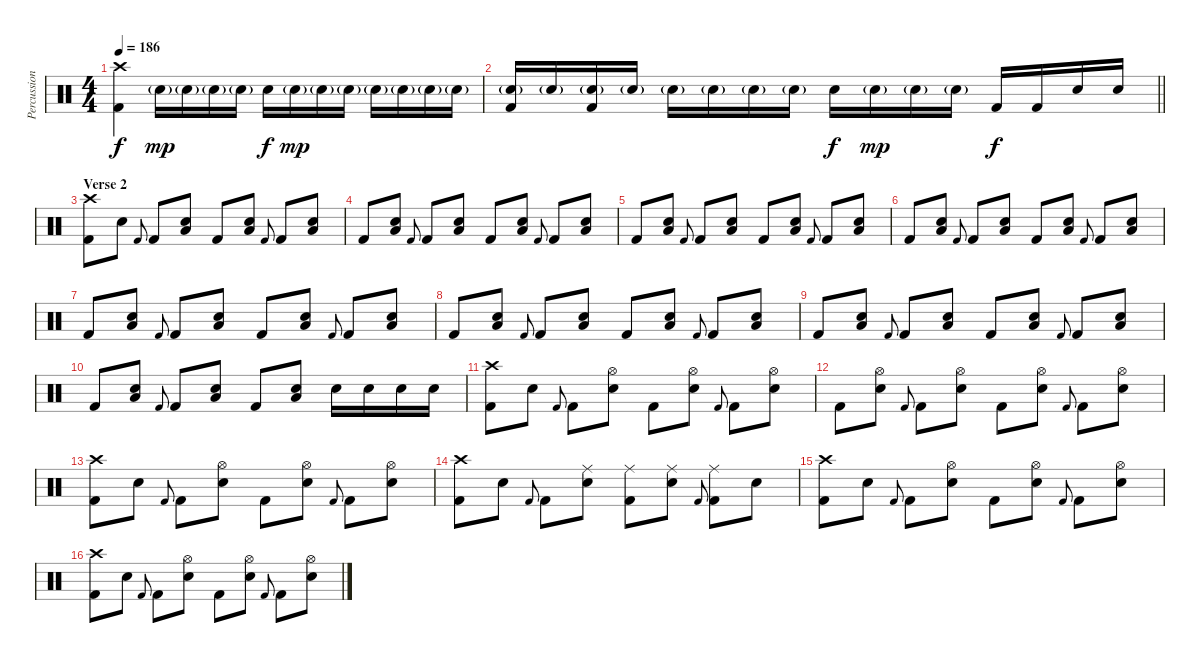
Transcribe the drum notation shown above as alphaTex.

\track ("Percussion" "Percussion") {instrument percussion}
\staff {score}
\articulation defaults
\ts (4 4)
\tempo 186
\clef neutral
\ks c
("Crash high (hit)" "Kick (hit) 2").4{dy f} "Electric Snare (hit)"{g}.16{dy mp} "Electric Snare (hit)"{g}.16 "Electric Snare (hit)"{g}.16 "Electric Snare (hit)"{g}.16 "Electric Snare (hit)".16{dy f} "Electric Snare (hit)"{g}.16{dy mp} "Electric Snare (hit)"{g}.16 "Electric Snare (hit)"{g}.16 "Electric Snare (hit)"{g}.16 "Electric Snare (hit)"{g}.16 "Electric Snare (hit)"{g}.16 "Electric Snare (hit)"{g}.16 |
\barLineRight lightlight
("Electric Snare (hit)"{g} "Kick (hit) 2").16 "Electric Snare (hit)"{g}.16 ("Electric Snare (hit)"{g} "Kick (hit) 2").16 "Electric Snare (hit)"{g}.16 "Electric Snare (hit)"{g}.16 "Electric Snare (hit)"{g}.16 "Electric Snare (hit)"{g}.16 "Electric Snare (hit)"{g}.16 "Electric Snare (hit)".16{dy f} "Electric Snare (hit)"{g}.16{dy mp} "Electric Snare (hit)"{g}.16 "Electric Snare (hit)"{g}.16 "Kick (hit) 2".16{dy f} "Kick (hit) 2".16 "Electric Snare (hit)".16 "Electric Snare (hit)".16 |
\section ("" "Verse 2")
("Crash high (hit)" "Kick (hit) 2").8 "Electric Snare (hit)".8 "Kick (hit) 2".8{gr onbeat} "Kick (hit) 2".8 ("Low Floor Tom (hit)" "Electric Snare (hit)").8 "Kick (hit) 2".8 ("Low Floor Tom (hit)" "Electric Snare (hit)").8 "Kick (hit) 2".8{gr onbeat} "Kick (hit) 2".8 ("Low Floor Tom (hit)" "Electric Snare (hit)").8 |
"Kick (hit) 2".8 ("Low Floor Tom (hit)" "Electric Snare (hit)").8 "Kick (hit) 2".8{gr onbeat} "Kick (hit) 2".8 ("Low Floor Tom (hit)" "Electric Snare (hit)").8 "Kick (hit) 2".8 ("Low Floor Tom (hit)" "Electric Snare (hit)").8 "Kick (hit) 2".8{gr onbeat} "Kick (hit) 2".8 ("Low Floor Tom (hit)" "Electric Snare (hit)").8 |
"Kick (hit) 2".8 ("Low Floor Tom (hit)" "Electric Snare (hit)").8 "Kick (hit) 2".8{gr onbeat} "Kick (hit) 2".8 ("Low Floor Tom (hit)" "Electric Snare (hit)").8 "Kick (hit) 2".8 ("Low Floor Tom (hit)" "Electric Snare (hit)").8 "Kick (hit) 2".8{gr onbeat} "Kick (hit) 2".8 ("Low Floor Tom (hit)" "Electric Snare (hit)").8 |
"Kick (hit) 2".8 ("Low Floor Tom (hit)" "Electric Snare (hit)").8 "Kick (hit) 2".8{gr onbeat} "Kick (hit) 2".8 ("Low Floor Tom (hit)" "Electric Snare (hit)").8 "Kick (hit) 2".8 ("Low Floor Tom (hit)" "Electric Snare (hit)").8 "Kick (hit) 2".8{gr onbeat} "Kick (hit) 2".8 ("Low Floor Tom (hit)" "Electric Snare (hit)").8 |
"Kick (hit) 2".8 ("Low Floor Tom (hit)" "Electric Snare (hit)").8 "Kick (hit) 2".8{gr onbeat} "Kick (hit) 2".8 ("Low Floor Tom (hit)" "Electric Snare (hit)").8 "Kick (hit) 2".8 ("Low Floor Tom (hit)" "Electric Snare (hit)").8 "Kick (hit) 2".8{gr onbeat} "Kick (hit) 2".8 ("Low Floor Tom (hit)" "Electric Snare (hit)").8 |
"Kick (hit) 2".8 ("Low Floor Tom (hit)" "Electric Snare (hit)").8 "Kick (hit) 2".8{gr onbeat} "Kick (hit) 2".8 ("Low Floor Tom (hit)" "Electric Snare (hit)").8 "Kick (hit) 2".8 ("Low Floor Tom (hit)" "Electric Snare (hit)").8 "Kick (hit) 2".8{gr onbeat} "Kick (hit) 2".8 ("Low Floor Tom (hit)" "Electric Snare (hit)").8 |
"Kick (hit) 2".8 ("Low Floor Tom (hit)" "Electric Snare (hit)").8 "Kick (hit) 2".8{gr onbeat} "Kick (hit) 2".8 ("Low Floor Tom (hit)" "Electric Snare (hit)").8 "Kick (hit) 2".8 ("Low Floor Tom (hit)" "Electric Snare (hit)").8 "Kick (hit) 2".8{gr onbeat} "Kick (hit) 2".8 ("Low Floor Tom (hit)" "Electric Snare (hit)").8 |
"Kick (hit) 2".8 ("Low Floor Tom (hit)" "Electric Snare (hit)").8 "Kick (hit) 2".8{gr onbeat} "Kick (hit) 2".8 ("Low Floor Tom (hit)" "Electric Snare (hit)").8 "Kick (hit) 2".8 ("Low Floor Tom (hit)" "Electric Snare (hit)").8 "Electric Snare (hit)".16 "Electric Snare (hit)".16 "Electric Snare (hit)".16 "Electric Snare (hit)".16 |
("Crash high (hit)" "Kick (hit) 2").8 "Electric Snare (hit)".8 "Kick (hit) 2".8{gr onbeat} "Kick (hit) 2".8 ("Hi-Hat (open)" "Electric Snare (hit)").8 "Kick (hit) 2".8 ("Hi-Hat (open)" "Electric Snare (hit)").8 "Kick (hit) 2".8{gr onbeat} "Kick (hit) 2".8 ("Hi-Hat (open)" "Electric Snare (hit)").8 |
"Kick (hit) 2".8 ("Hi-Hat (open)" "Electric Snare (hit)").8 "Kick (hit) 2".8{gr onbeat} "Kick (hit) 2".8 ("Hi-Hat (open)" "Electric Snare (hit)").8 "Kick (hit) 2".8 ("Hi-Hat (open)" "Electric Snare (hit)").8 "Kick (hit) 2".8{gr onbeat} "Kick (hit) 2".8 ("Hi-Hat (open)" "Electric Snare (hit)").8 |
("Crash high (hit)" "Kick (hit) 2").8 "Electric Snare (hit)".8 "Kick (hit) 2".8{gr onbeat} "Kick (hit) 2".8 ("Hi-Hat (open)" "Electric Snare (hit)").8 "Kick (hit) 2".8 ("Hi-Hat (open)" "Electric Snare (hit)").8 "Kick (hit) 2".8{gr onbeat} "Kick (hit) 2".8 ("Hi-Hat (open)" "Electric Snare (hit)").8 |
("Crash high (hit)" "Kick (hit) 2").8 "Electric Snare (hit)".8 "Kick (hit) 2".8{gr onbeat} "Kick (hit) 2".8 ("Ride (middle)" "Electric Snare (hit)").8 ("Ride (middle)" "Kick (hit) 2").8 ("Ride (middle)" "Electric Snare (hit)").8 "Kick (hit) 2".8{gr onbeat} ("Ride (middle)" "Kick (hit) 2").8 "Electric Snare (hit)".8 |
("Crash high (hit)" "Kick (hit) 2").8 "Electric Snare (hit)".8 "Kick (hit) 2".8{gr onbeat} "Kick (hit) 2".8 ("Hi-Hat (open)" "Electric Snare (hit)").8 "Kick (hit) 2".8 ("Hi-Hat (open)" "Electric Snare (hit)").8 "Kick (hit) 2".8{gr onbeat} "Kick (hit) 2".8 ("Hi-Hat (open)" "Electric Snare (hit)").8 |
("Crash high (hit)" "Kick (hit) 2").8 "Electric Snare (hit)".8 "Kick (hit) 2".8{gr onbeat} "Kick (hit) 2".8 ("Hi-Hat (open)" "Electric Snare (hit)").8 "Kick (hit) 2".8 ("Hi-Hat (open)" "Electric Snare (hit)").8 "Kick (hit) 2".8{gr onbeat} "Kick (hit) 2".8 ("Hi-Hat (open)" "Electric Snare (hit)").8
